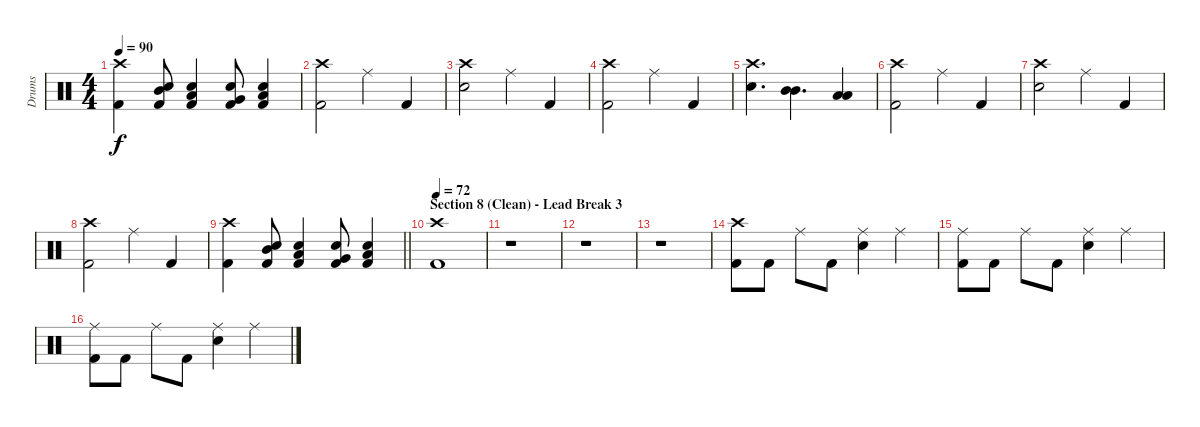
\track ("Drums" "Drums") {instrument percussion}
\staff {score}
\articulation defaults
\ts (4 4)
\tempo 90
\clef neutral
\ks c
("Crash high (hit)" "Kick (hit) 2").4{dy f} ("Mid Tom (hit)" "Electric Snare (hit)" "Kick (hit) 2").8 ("Low Tom (hit)" "Electric Snare (hit)" "Kick (hit) 2").4 ("Very Low Tom (hit)" "Electric Snare (hit)" "Kick (hit) 2").8 ("Low Floor Tom (hit)" "Electric Snare (hit)" "Kick (hit) 2").4 |
("Crash high (hit)" "Kick (hit) 2").2 "Ride (middle)".4 "Kick (hit) 2".4 |
("Crash high (hit)" "Electric Snare (hit)").2 "Ride (middle)".4 "Kick (hit) 2".4 |
("Crash high (hit)" "Kick (hit) 2").2 "Ride (middle)".4 "Kick (hit) 2".4 |
("Crash high (hit)" "Electric Snare (hit)").4{d} ("Mid Tom (hit)" "Mid Tom (hit)").4{d bu 60} ("Low Tom (hit)" "Low Tom (hit)").4{bu 60} |
("Crash high (hit)" "Kick (hit) 2").2 "Ride (middle)".4 "Kick (hit) 2".4 |
("Crash high (hit)" "Electric Snare (hit)").2 "Ride (middle)".4 "Kick (hit) 2".4 |
("Crash high (hit)" "Kick (hit) 2").2 "Ride (middle)".4 "Kick (hit) 2".4 |
\barLineRight lightlight
("Crash high (hit)" "Kick (hit) 2").4 ("Mid Tom (hit)" "Electric Snare (hit)" "Kick (hit) 2").8 ("Low Tom (hit)" "Electric Snare (hit)" "Kick (hit) 2").4 ("Very Low Tom (hit)" "Electric Snare (hit)" "Kick (hit) 2").8 ("Low Floor Tom (hit)" "Electric Snare (hit)" "Kick (hit) 2").4 |
\section ("" "Section 8 (Clean) - Lead Break 3")
\tempo 72
("Crash high (hit)" "Kick (hit) 2").1 |
r.1 |
r.1 |
r.1 |
("Crash high (hit)" "Kick (hit) 2").8 "Kick (hit) 2".8 "Ride (middle)".8 "Kick (hit) 2".8 ("Ride (middle)" "Electric Snare (hit)").4 "Ride (middle)".4 |
("Ride (middle)" "Kick (hit) 2").8 "Kick (hit) 2".8 "Ride (middle)".8 "Kick (hit) 2".8 ("Ride (middle)" "Electric Snare (hit)").4 "Ride (middle)".4 |
("Ride (middle)" "Kick (hit) 2").8 "Kick (hit) 2".8 "Ride (middle)".8 "Kick (hit) 2".8 ("Ride (middle)" "Electric Snare (hit)").4 "Ride (middle)".4
